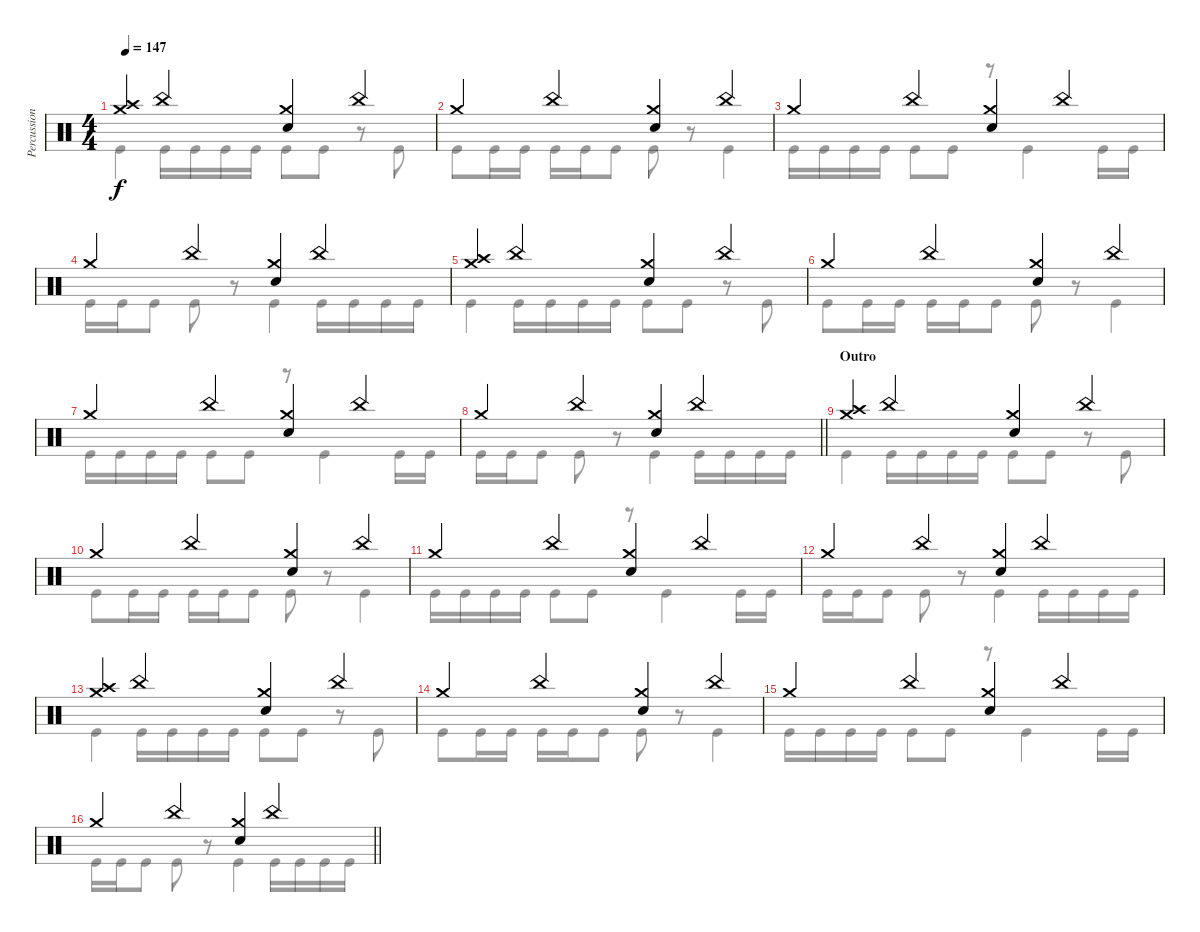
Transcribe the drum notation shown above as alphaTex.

\track ("Percussion" "Percussion") {instrument percussion}
\staff {score}
\articulation defaults
\voice
\ts (4 4)
\section ("" "")
\tempo 147
\clef neutral
\ks aminor
("Crash medium (hit)" "Crash high (hit)").4{dy f} "China (hit)".4 ("Crash medium (hit)" "Electric Snare (hit)").4 "China (hit)".4 |
"Crash medium (hit)".4 "China (hit)".4 ("Crash medium (hit)" "Electric Snare (hit)").4 "China (hit)".4 |
"Crash medium (hit)".4 "China (hit)".4 ("Crash medium (hit)" "Electric Snare (hit)").4 "China (hit)".4 |
"Crash medium (hit)".4 "China (hit)".4 ("Crash medium (hit)" "Electric Snare (hit)").4 "China (hit)".4 |
("Crash medium (hit)" "Crash high (hit)").4 "China (hit)".4 ("Crash medium (hit)" "Electric Snare (hit)").4 "China (hit)".4 |
"Crash medium (hit)".4 "China (hit)".4 ("Crash medium (hit)" "Electric Snare (hit)").4 "China (hit)".4 |
"Crash medium (hit)".4 "China (hit)".4 ("Crash medium (hit)" "Electric Snare (hit)").4 "China (hit)".4 |
\barLineRight lightlight "Crash medium (hit)".4 "China (hit)".4
("Crash medium (hit)" "Electric Snare (hit)").4 "China (hit)".4 |
\section ("" "Outro")
("Crash medium (hit)" "Crash high (hit)").4 "China (hit)".4 ("Crash medium (hit)" "Electric Snare (hit)").4 "China (hit)".4 |
"Crash medium (hit)".4 "China (hit)".4 ("Crash medium (hit)" "Electric Snare (hit)").4 "China (hit)".4 |
"Crash medium (hit)".4 "China (hit)".4 ("Crash medium (hit)" "Electric Snare (hit)").4 "China (hit)".4 |
"Crash medium (hit)".4 "China (hit)".4 ("Crash medium (hit)" "Electric Snare (hit)").4 "China (hit)".4 |
("Crash medium (hit)" "Crash high (hit)").4 "China (hit)".4 ("Crash medium (hit)" "Electric Snare (hit)").4 "China (hit)".4 |
"Crash medium (hit)".4 "China (hit)".4 ("Crash medium (hit)" "Electric Snare (hit)").4 "China (hit)".4 |
"Crash medium (hit)".4 "China (hit)".4 ("Crash medium (hit)" "Electric Snare (hit)").4 "China (hit)".4 |
\barLineRight lightlight "Crash medium (hit)".4 "China (hit)".4
("Crash medium (hit)" "Electric Snare (hit)").4 "China (hit)".4
\voice
\clef neutral
\ottava regular
\simile none
\ks aminor "Kick (hit)".4{dy f} "Kick (hit)".16 "Kick (hit)".16 "Kick (hit)".16 "Kick (hit)".16 "Kick (hit)".8 "Kick (hit)".8
r.8 "Kick (hit)".8 |
"Kick (hit)".8 "Kick (hit)".16 "Kick (hit)".16 "Kick (hit)".16 "Kick (hit)".16 "Kick (hit)".8 "Kick (hit)".8 r.8 "Kick (hit)".4 |
"Kick (hit)".16 "Kick (hit)".16 "Kick (hit)".16 "Kick (hit)".16 "Kick (hit)".8 "Kick (hit)".8 r.8 "Kick (hit)".4 "Kick (hit)".16 "Kick (hit)".16 |
"Kick (hit)".16 "Kick (hit)".16 "Kick (hit)".8 "Kick (hit)".8 r.8 "Kick (hit)".4 "Kick (hit)".16 "Kick (hit)".16 "Kick (hit)".16 "Kick (hit)".16 |
"Kick (hit)".4 "Kick (hit)".16 "Kick (hit)".16 "Kick (hit)".16 "Kick (hit)".16 "Kick (hit)".8 "Kick (hit)".8 r.8 "Kick (hit)".8 |
"Kick (hit)".8 "Kick (hit)".16 "Kick (hit)".16 "Kick (hit)".16 "Kick (hit)".16 "Kick (hit)".8 "Kick (hit)".8 r.8 "Kick (hit)".4 |
"Kick (hit)".16 "Kick (hit)".16 "Kick (hit)".16 "Kick (hit)".16 "Kick (hit)".8 "Kick (hit)".8 r.8 "Kick (hit)".4 "Kick (hit)".16 "Kick (hit)".16 |
\barLineRight lightlight "Kick (hit)".16 "Kick (hit)".16 "Kick (hit)".8 "Kick (hit)".8
r.8 "Kick (hit)".4 "Kick (hit)".16 "Kick (hit)".16 "Kick (hit)".16 "Kick (hit)".16 |
"Kick (hit)".4 "Kick (hit)".16 "Kick (hit)".16 "Kick (hit)".16 "Kick (hit)".16 "Kick (hit)".8 "Kick (hit)".8 r.8 "Kick (hit)".8 |
"Kick (hit)".8 "Kick (hit)".16 "Kick (hit)".16 "Kick (hit)".16 "Kick (hit)".16 "Kick (hit)".8 "Kick (hit)".8 r.8 "Kick (hit)".4 |
"Kick (hit)".16 "Kick (hit)".16 "Kick (hit)".16 "Kick (hit)".16 "Kick (hit)".8 "Kick (hit)".8 r.8 "Kick (hit)".4 "Kick (hit)".16 "Kick (hit)".16 |
"Kick (hit)".16 "Kick (hit)".16 "Kick (hit)".8 "Kick (hit)".8 r.8 "Kick (hit)".4 "Kick (hit)".16 "Kick (hit)".16 "Kick (hit)".16 "Kick (hit)".16 |
"Kick (hit)".4 "Kick (hit)".16 "Kick (hit)".16 "Kick (hit)".16 "Kick (hit)".16 "Kick (hit)".8 "Kick (hit)".8 r.8 "Kick (hit)".8 |
"Kick (hit)".8 "Kick (hit)".16 "Kick (hit)".16 "Kick (hit)".16 "Kick (hit)".16 "Kick (hit)".8 "Kick (hit)".8 r.8 "Kick (hit)".4 |
"Kick (hit)".16 "Kick (hit)".16 "Kick (hit)".16 "Kick (hit)".16 "Kick (hit)".8 "Kick (hit)".8 r.8 "Kick (hit)".4 "Kick (hit)".16 "Kick (hit)".16 |
\barLineRight lightlight "Kick (hit)".16 "Kick (hit)".16 "Kick (hit)".8 "Kick (hit)".8
r.8 "Kick (hit)".4 "Kick (hit)".16 "Kick (hit)".16 "Kick (hit)".16 "Kick (hit)".16
